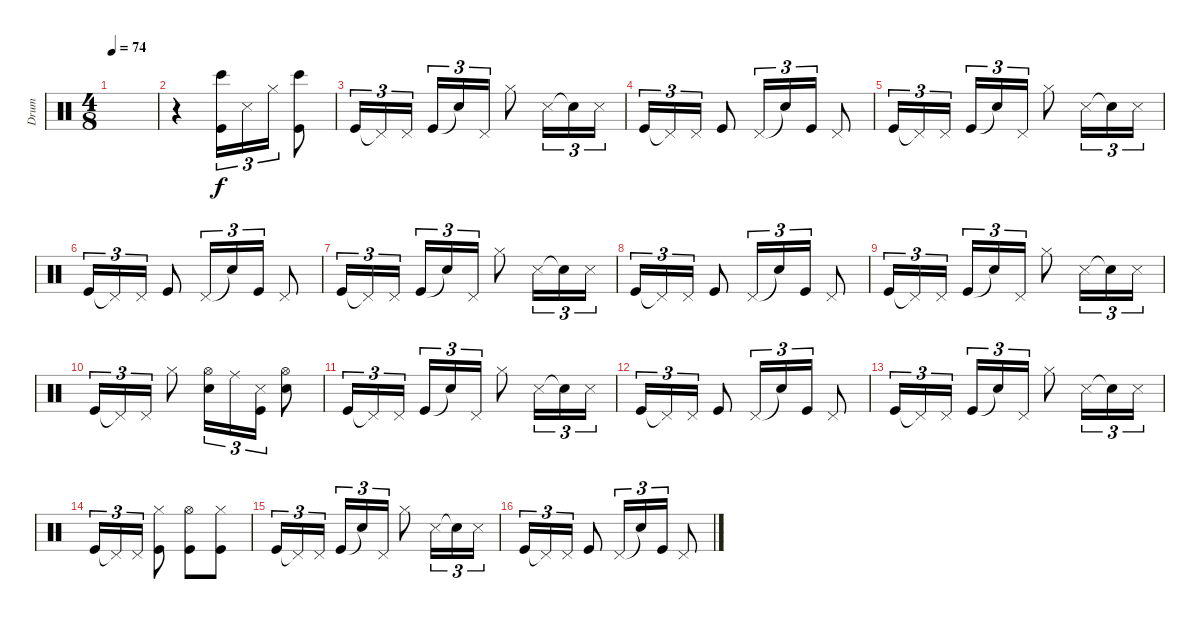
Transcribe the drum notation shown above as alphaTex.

\track ("Drum" "Drum") {instrument percussion}
\staff {score}
\articulation defaults
\ts (4 8)
\tempo 74
\clef neutral
\ks c
|
r.4 ("Bongo High (hit)" "Kick (hit)").16{tu (3 2)} "Snare (side stick) 3".16{tu (3 2)} "Hi-Hat (closed)".16{tu (3 2)} ("Bongo High (hit)" "Kick (hit)").8 |
"Kick (hit)".16{tu (3 2)} "Pedal Hi-Hat (hit)"{t}.16{tu (3 2)} "Pedal Hi-Hat (hit)".16{tu (3 2)} "Kick (hit)".16{tu (3 2)} "Snare (hit)"{t}.16{tu (3 2)} "Pedal Hi-Hat (hit)".16{tu (3 2)} "Hi-Hat (closed)".8 "Snare (side stick) 3".16{tu (3 2)} "Snare (hit)"{t}.16{tu (3 2)} "Snare (side stick) 3".16{tu (3 2)} |
"Kick (hit)".16{tu (3 2)} "Pedal Hi-Hat (hit)"{t}.16{tu (3 2)} "Pedal Hi-Hat (hit)".16{tu (3 2)} "Kick (hit)".8 "Pedal Hi-Hat (hit)".16{tu (3 2)} "Snare (hit)"{t}.16{tu (3 2)} "Kick (hit)".16{tu (3 2)} "Pedal Hi-Hat (hit)".8 |
"Kick (hit)".16{tu (3 2)} "Pedal Hi-Hat (hit)"{t}.16{tu (3 2)} "Pedal Hi-Hat (hit)".16{tu (3 2)} "Kick (hit)".16{tu (3 2)} "Snare (hit)"{t}.16{tu (3 2)} "Pedal Hi-Hat (hit)".16{tu (3 2)} "Hi-Hat (closed)".8 "Snare (side stick) 3".16{tu (3 2)} "Snare (hit)"{t}.16{tu (3 2)} "Snare (side stick) 3".16{tu (3 2)} |
"Kick (hit)".16{tu (3 2)} "Pedal Hi-Hat (hit)"{t}.16{tu (3 2)} "Pedal Hi-Hat (hit)".16{tu (3 2)} "Kick (hit)".8 "Pedal Hi-Hat (hit)".16{tu (3 2)} "Snare (hit)"{t}.16{tu (3 2)} "Kick (hit)".16{tu (3 2)} "Pedal Hi-Hat (hit)".8 |
"Kick (hit)".16{tu (3 2)} "Pedal Hi-Hat (hit)"{t}.16{tu (3 2)} "Pedal Hi-Hat (hit)".16{tu (3 2)} "Kick (hit)".16{tu (3 2)} "Snare (hit)"{t}.16{tu (3 2)} "Pedal Hi-Hat (hit)".16{tu (3 2)} "Hi-Hat (closed)".8 "Snare (side stick) 3".16{tu (3 2)} "Snare (hit)"{t}.16{tu (3 2)} "Snare (side stick) 3".16{tu (3 2)} |
"Kick (hit)".16{tu (3 2)} "Pedal Hi-Hat (hit)"{t}.16{tu (3 2)} "Pedal Hi-Hat (hit)".16{tu (3 2)} "Kick (hit)".8 "Pedal Hi-Hat (hit)".16{tu (3 2)} "Snare (hit)"{t}.16{tu (3 2)} "Kick (hit)".16{tu (3 2)} "Pedal Hi-Hat (hit)".8 |
"Kick (hit)".16{tu (3 2)} "Pedal Hi-Hat (hit)"{t}.16{tu (3 2)} "Pedal Hi-Hat (hit)".16{tu (3 2)} "Kick (hit)".16{tu (3 2)} "Snare (hit)"{t}.16{tu (3 2)} "Pedal Hi-Hat (hit)".16{tu (3 2)} "Hi-Hat (closed)".8 "Snare (side stick) 3".16{tu (3 2)} "Snare (hit)"{t}.16{tu (3 2)} "Snare (side stick) 3".16{tu (3 2)} |
"Kick (hit)".16{tu (3 2)} "Pedal Hi-Hat (hit)"{t}.16{tu (3 2)} "Pedal Hi-Hat (hit)".16{tu (3 2)} "Hi-Hat (closed)".8 ("Hi-Hat (open)" "Snare (hit) 2").16{tu (3 2)} "Ride (middle)".16{tu (3 2)} ("Snare (side stick) 3" "Kick (hit)").16{tu (3 2)} ("Hi-Hat (open)" "Snare (hit) 2").8 |
"Kick (hit)".16{tu (3 2)} "Pedal Hi-Hat (hit)"{t}.16{tu (3 2)} "Pedal Hi-Hat (hit)".16{tu (3 2)} "Kick (hit)".16{tu (3 2)} "Snare (hit)"{t}.16{tu (3 2)} "Pedal Hi-Hat (hit)".16{tu (3 2)} "Hi-Hat (closed)".8 "Snare (side stick) 3".16{tu (3 2)} "Snare (hit)"{t}.16{tu (3 2)} "Snare (side stick) 3".16{tu (3 2)} |
"Kick (hit)".16{tu (3 2)} "Pedal Hi-Hat (hit)"{t}.16{tu (3 2)} "Pedal Hi-Hat (hit)".16{tu (3 2)} "Kick (hit)".8 "Pedal Hi-Hat (hit)".16{tu (3 2)} "Snare (hit)"{t}.16{tu (3 2)} "Kick (hit)".16{tu (3 2)} "Pedal Hi-Hat (hit)".8 |
"Kick (hit)".16{tu (3 2)} "Pedal Hi-Hat (hit)"{t}.16{tu (3 2)} "Pedal Hi-Hat (hit)".16{tu (3 2)} "Kick (hit)".16{tu (3 2)} "Snare (hit)"{t}.16{tu (3 2)} "Pedal Hi-Hat (hit)".16{tu (3 2)} "Hi-Hat (closed)".8 "Snare (side stick) 3".16{tu (3 2)} "Snare (hit)"{t}.16{tu (3 2)} "Snare (side stick) 3".16{tu (3 2)} |
"Kick (hit)".16{tu (3 2)} "Pedal Hi-Hat (hit)"{t}.16{tu (3 2)} "Pedal Hi-Hat (hit)".16{tu (3 2)} ("Hi-Hat (closed)" "Kick (hit)").8 ("Hi-Hat (open)" "Kick (hit)").8 ("Hi-Hat (closed)" "Kick (hit)").8 |
"Kick (hit)".16{tu (3 2)} "Pedal Hi-Hat (hit)"{t}.16{tu (3 2)} "Pedal Hi-Hat (hit)".16{tu (3 2)} "Kick (hit)".16{tu (3 2)} "Snare (hit)"{t}.16{tu (3 2)} "Pedal Hi-Hat (hit)".16{tu (3 2)} "Hi-Hat (closed)".8 "Snare (side stick) 3".16{tu (3 2)} "Snare (hit)"{t}.16{tu (3 2)} "Snare (side stick) 3".16{tu (3 2)} |
"Kick (hit)".16{tu (3 2)} "Pedal Hi-Hat (hit)"{t}.16{tu (3 2)} "Pedal Hi-Hat (hit)".16{tu (3 2)} "Kick (hit)".8 "Pedal Hi-Hat (hit)".16{tu (3 2)} "Snare (hit)"{t}.16{tu (3 2)} "Kick (hit)".16{tu (3 2)} "Pedal Hi-Hat (hit)".8
